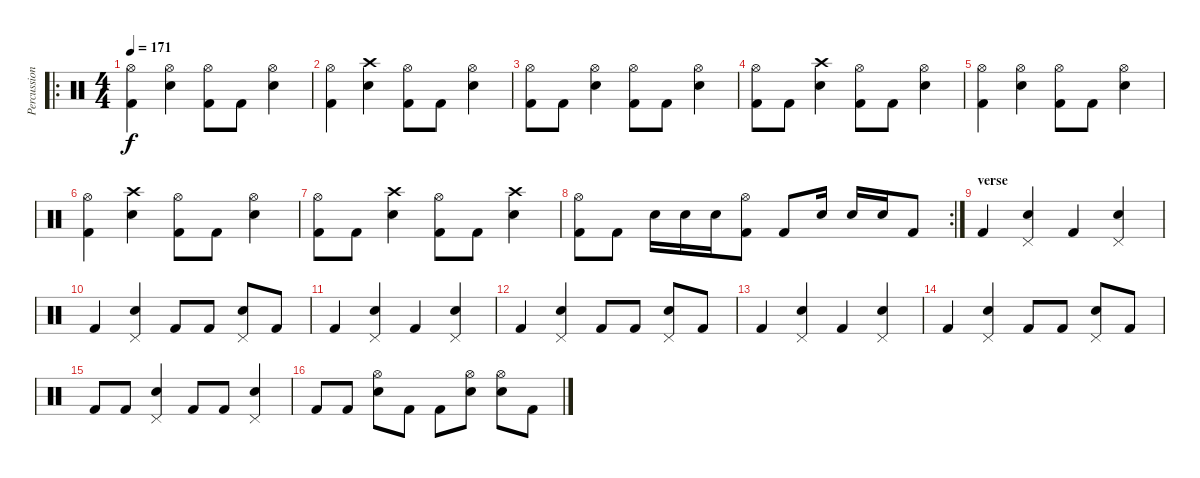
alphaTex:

\track ("Percussion" "Percussion") {instrument percussion}
\staff {score}
\articulation defaults
\ro
\ts (4 4)
\tempo 171
\clef neutral
\ks c
("Hi-Hat (open)" "Kick (hit) 2").4{dy f} ("Hi-Hat (open)" "Electric Snare (hit)").4 ("Hi-Hat (open)" "Kick (hit) 2").8 "Kick (hit) 2".8 ("Hi-Hat (open)" "Electric Snare (hit)").4 |
("Hi-Hat (open)" "Kick (hit) 2").4 ("Crash high (hit)" "Electric Snare (hit)").4 ("Hi-Hat (open)" "Kick (hit) 2").8 "Kick (hit) 2".8 ("Hi-Hat (open)" "Electric Snare (hit)").4 |
("Hi-Hat (open)" "Kick (hit) 2").8 "Kick (hit) 2".8 ("Hi-Hat (open)" "Electric Snare (hit)").4 ("Hi-Hat (open)" "Kick (hit) 2").8 "Kick (hit) 2".8 ("Hi-Hat (open)" "Electric Snare (hit)").4 |
("Hi-Hat (open)" "Kick (hit) 2").8 "Kick (hit) 2".8 ("Crash high (hit)" "Electric Snare (hit)").4 ("Hi-Hat (open)" "Kick (hit) 2").8 "Kick (hit) 2".8 ("Hi-Hat (open)" "Electric Snare (hit)").4 |
("Hi-Hat (open)" "Kick (hit) 2").4 ("Hi-Hat (open)" "Electric Snare (hit)").4 ("Hi-Hat (open)" "Kick (hit) 2").8 "Kick (hit) 2".8 ("Hi-Hat (open)" "Electric Snare (hit)").4 |
("Hi-Hat (open)" "Kick (hit) 2").4 ("Crash high (hit)" "Electric Snare (hit)").4 ("Hi-Hat (open)" "Kick (hit) 2").8 "Kick (hit) 2".8 ("Hi-Hat (open)" "Electric Snare (hit)").4 |
("Hi-Hat (open)" "Kick (hit) 2").8 "Kick (hit) 2".8 ("Crash high (hit)" "Electric Snare (hit)").4 ("Hi-Hat (open)" "Kick (hit) 2").8 "Kick (hit) 2".8 ("Crash high (hit)" "Electric Snare (hit)").4 |
\rc 2
("Hi-Hat (open)" "Kick (hit) 2").8 "Kick (hit) 2".8 "Electric Snare (hit)".16 "Electric Snare (hit)".16 "Electric Snare (hit)".16 ("Hi-Hat (open)" "Kick (hit) 2").8 "Kick (hit) 2".8 "Electric Snare (hit)".16 "Electric Snare (hit)".16 "Electric Snare (hit)".16 "Kick (hit) 2".8 |
\section ("" "verse")
"Kick (hit) 2".4 ("Pedal Hi-Hat (hit)" "Electric Snare (hit)").4 "Kick (hit) 2".4 ("Pedal Hi-Hat (hit)" "Electric Snare (hit)").4 |
"Kick (hit) 2".4 ("Pedal Hi-Hat (hit)" "Electric Snare (hit)").4 "Kick (hit) 2".8 "Kick (hit) 2".8 ("Pedal Hi-Hat (hit)" "Electric Snare (hit)").8 "Kick (hit) 2".8 |
"Kick (hit) 2".4 ("Pedal Hi-Hat (hit)" "Electric Snare (hit)").4 "Kick (hit) 2".4 ("Pedal Hi-Hat (hit)" "Electric Snare (hit)").4 |
"Kick (hit) 2".4 ("Pedal Hi-Hat (hit)" "Electric Snare (hit)").4 "Kick (hit) 2".8 "Kick (hit) 2".8 ("Pedal Hi-Hat (hit)" "Electric Snare (hit)").8 "Kick (hit) 2".8 |
"Kick (hit) 2".4 ("Pedal Hi-Hat (hit)" "Electric Snare (hit)").4 "Kick (hit) 2".4 ("Pedal Hi-Hat (hit)" "Electric Snare (hit)").4 |
"Kick (hit) 2".4 ("Pedal Hi-Hat (hit)" "Electric Snare (hit)").4 "Kick (hit) 2".8 "Kick (hit) 2".8 ("Pedal Hi-Hat (hit)" "Electric Snare (hit)").8 "Kick (hit) 2".8 |
"Kick (hit) 2".8 "Kick (hit) 2".8 ("Pedal Hi-Hat (hit)" "Electric Snare (hit)").4 "Kick (hit) 2".8 "Kick (hit) 2".8 ("Pedal Hi-Hat (hit)" "Electric Snare (hit)").4 |
"Kick (hit) 2".8 "Kick (hit) 2".8 ("Hi-Hat (open)" "Electric Snare (hit)").8 "Kick (hit) 2".8 "Kick (hit) 2".8 ("Hi-Hat (open)" "Electric Snare (hit)").8 ("Hi-Hat (open)" "Electric Snare (hit)").8 "Kick (hit) 2".8
